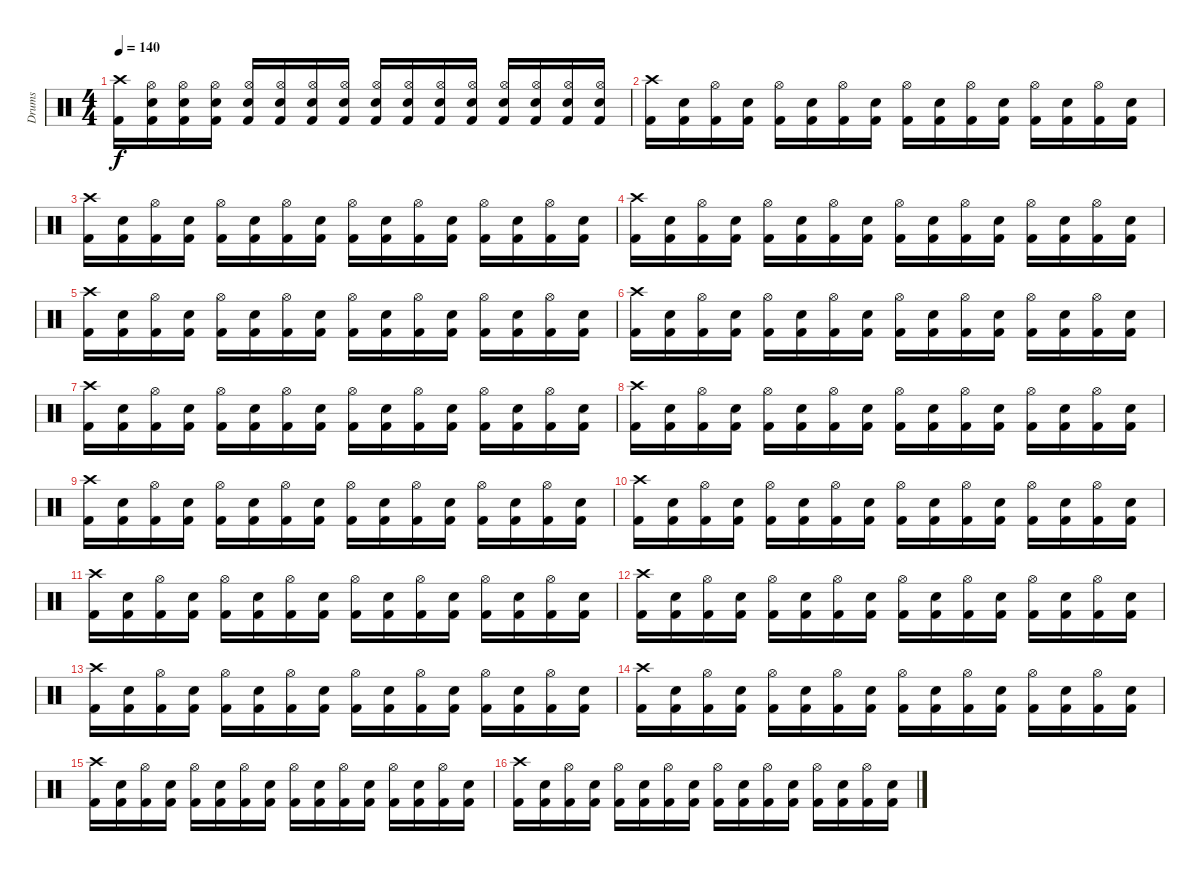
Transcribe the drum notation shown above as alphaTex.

\track ("Drums" "Drums") {instrument percussion}
\staff {score}
\articulation defaults
\ts (4 4)
\tempo 140
\clef neutral
\ks c
("Crash high (hit)" "Kick (hit) 2").16{dy f} ("Hi-Hat (open)" "Electric Snare (hit)" "Kick (hit) 2").16 ("Hi-Hat (open)" "Electric Snare (hit)" "Kick (hit) 2").16 ("Hi-Hat (open)" "Electric Snare (hit)" "Kick (hit) 2").16 ("Hi-Hat (open)" "Electric Snare (hit)" "Kick (hit) 2").16 ("Hi-Hat (open)" "Electric Snare (hit)" "Kick (hit) 2").16 ("Hi-Hat (open)" "Electric Snare (hit)" "Kick (hit) 2").16 ("Hi-Hat (open)" "Electric Snare (hit)" "Kick (hit) 2").16 ("Hi-Hat (open)" "Electric Snare (hit)" "Kick (hit) 2").16 ("Hi-Hat (open)" "Electric Snare (hit)" "Kick (hit) 2").16 ("Hi-Hat (open)" "Electric Snare (hit)" "Kick (hit) 2").16 ("Hi-Hat (open)" "Electric Snare (hit)" "Kick (hit) 2").16 ("Hi-Hat (open)" "Electric Snare (hit)" "Kick (hit) 2").16 ("Hi-Hat (open)" "Electric Snare (hit)" "Kick (hit) 2").16 ("Hi-Hat (open)" "Electric Snare (hit)" "Kick (hit) 2").16 ("Hi-Hat (open)" "Electric Snare (hit)" "Kick (hit) 2").16 |
("Crash high (hit)" "Kick (hit) 2").16 ("Electric Snare (hit)" "Kick (hit) 2").16 ("Hi-Hat (open)" "Kick (hit) 2").16 ("Electric Snare (hit)" "Kick (hit) 2").16 ("Hi-Hat (open)" "Kick (hit) 2").16 ("Electric Snare (hit)" "Kick (hit) 2").16 ("Hi-Hat (open)" "Kick (hit) 2").16 ("Electric Snare (hit)" "Kick (hit) 2").16 ("Hi-Hat (open)" "Kick (hit) 2").16 ("Electric Snare (hit)" "Kick (hit) 2").16 ("Hi-Hat (open)" "Kick (hit) 2").16 ("Electric Snare (hit)" "Kick (hit) 2").16 ("Hi-Hat (open)" "Kick (hit) 2").16 ("Electric Snare (hit)" "Kick (hit) 2").16 ("Hi-Hat (open)" "Kick (hit) 2").16 ("Electric Snare (hit)" "Kick (hit) 2").16 |
("Crash high (hit)" "Kick (hit) 2").16 ("Electric Snare (hit)" "Kick (hit) 2").16 ("Hi-Hat (open)" "Kick (hit) 2").16 ("Electric Snare (hit)" "Kick (hit) 2").16 ("Hi-Hat (open)" "Kick (hit) 2").16 ("Electric Snare (hit)" "Kick (hit) 2").16 ("Hi-Hat (open)" "Kick (hit) 2").16 ("Electric Snare (hit)" "Kick (hit) 2").16 ("Hi-Hat (open)" "Kick (hit) 2").16 ("Electric Snare (hit)" "Kick (hit) 2").16 ("Hi-Hat (open)" "Kick (hit) 2").16 ("Electric Snare (hit)" "Kick (hit) 2").16 ("Hi-Hat (open)" "Kick (hit) 2").16 ("Electric Snare (hit)" "Kick (hit) 2").16 ("Hi-Hat (open)" "Kick (hit) 2").16 ("Electric Snare (hit)" "Kick (hit) 2").16 |
("Crash high (hit)" "Kick (hit) 2").16 ("Electric Snare (hit)" "Kick (hit) 2").16 ("Hi-Hat (open)" "Kick (hit) 2").16 ("Electric Snare (hit)" "Kick (hit) 2").16 ("Hi-Hat (open)" "Kick (hit) 2").16 ("Electric Snare (hit)" "Kick (hit) 2").16 ("Hi-Hat (open)" "Kick (hit) 2").16 ("Electric Snare (hit)" "Kick (hit) 2").16 ("Hi-Hat (open)" "Kick (hit) 2").16 ("Electric Snare (hit)" "Kick (hit) 2").16 ("Hi-Hat (open)" "Kick (hit) 2").16 ("Electric Snare (hit)" "Kick (hit) 2").16 ("Hi-Hat (open)" "Kick (hit) 2").16 ("Electric Snare (hit)" "Kick (hit) 2").16 ("Hi-Hat (open)" "Kick (hit) 2").16 ("Electric Snare (hit)" "Kick (hit) 2").16 |
("Crash high (hit)" "Kick (hit) 2").16 ("Electric Snare (hit)" "Kick (hit) 2").16 ("Hi-Hat (open)" "Kick (hit) 2").16 ("Electric Snare (hit)" "Kick (hit) 2").16 ("Hi-Hat (open)" "Kick (hit) 2").16 ("Electric Snare (hit)" "Kick (hit) 2").16 ("Hi-Hat (open)" "Kick (hit) 2").16 ("Electric Snare (hit)" "Kick (hit) 2").16 ("Hi-Hat (open)" "Kick (hit) 2").16 ("Electric Snare (hit)" "Kick (hit) 2").16 ("Hi-Hat (open)" "Kick (hit) 2").16 ("Electric Snare (hit)" "Kick (hit) 2").16 ("Hi-Hat (open)" "Kick (hit) 2").16 ("Electric Snare (hit)" "Kick (hit) 2").16 ("Hi-Hat (open)" "Kick (hit) 2").16 ("Electric Snare (hit)" "Kick (hit) 2").16 |
("Crash high (hit)" "Kick (hit) 2").16 ("Electric Snare (hit)" "Kick (hit) 2").16 ("Hi-Hat (open)" "Kick (hit) 2").16 ("Electric Snare (hit)" "Kick (hit) 2").16 ("Hi-Hat (open)" "Kick (hit) 2").16 ("Electric Snare (hit)" "Kick (hit) 2").16 ("Hi-Hat (open)" "Kick (hit) 2").16 ("Electric Snare (hit)" "Kick (hit) 2").16 ("Hi-Hat (open)" "Kick (hit) 2").16 ("Electric Snare (hit)" "Kick (hit) 2").16 ("Hi-Hat (open)" "Kick (hit) 2").16 ("Electric Snare (hit)" "Kick (hit) 2").16 ("Hi-Hat (open)" "Kick (hit) 2").16 ("Electric Snare (hit)" "Kick (hit) 2").16 ("Hi-Hat (open)" "Kick (hit) 2").16 ("Electric Snare (hit)" "Kick (hit) 2").16 |
("Crash high (hit)" "Kick (hit) 2").16 ("Electric Snare (hit)" "Kick (hit) 2").16 ("Hi-Hat (open)" "Kick (hit) 2").16 ("Electric Snare (hit)" "Kick (hit) 2").16 ("Hi-Hat (open)" "Kick (hit) 2").16 ("Electric Snare (hit)" "Kick (hit) 2").16 ("Hi-Hat (open)" "Kick (hit) 2").16 ("Electric Snare (hit)" "Kick (hit) 2").16 ("Hi-Hat (open)" "Kick (hit) 2").16 ("Electric Snare (hit)" "Kick (hit) 2").16 ("Hi-Hat (open)" "Kick (hit) 2").16 ("Electric Snare (hit)" "Kick (hit) 2").16 ("Hi-Hat (open)" "Kick (hit) 2").16 ("Electric Snare (hit)" "Kick (hit) 2").16 ("Hi-Hat (open)" "Kick (hit) 2").16 ("Electric Snare (hit)" "Kick (hit) 2").16 |
("Crash high (hit)" "Kick (hit) 2").16 ("Electric Snare (hit)" "Kick (hit) 2").16 ("Hi-Hat (open)" "Kick (hit) 2").16 ("Electric Snare (hit)" "Kick (hit) 2").16 ("Hi-Hat (open)" "Kick (hit) 2").16 ("Electric Snare (hit)" "Kick (hit) 2").16 ("Hi-Hat (open)" "Kick (hit) 2").16 ("Electric Snare (hit)" "Kick (hit) 2").16 ("Hi-Hat (open)" "Kick (hit) 2").16 ("Electric Snare (hit)" "Kick (hit) 2").16 ("Hi-Hat (open)" "Kick (hit) 2").16 ("Electric Snare (hit)" "Kick (hit) 2").16 ("Hi-Hat (open)" "Kick (hit) 2").16 ("Electric Snare (hit)" "Kick (hit) 2").16 ("Hi-Hat (open)" "Kick (hit) 2").16 ("Electric Snare (hit)" "Kick (hit) 2").16 |
("Crash high (hit)" "Kick (hit) 2").16 ("Electric Snare (hit)" "Kick (hit) 2").16 ("Hi-Hat (open)" "Kick (hit) 2").16 ("Electric Snare (hit)" "Kick (hit) 2").16 ("Hi-Hat (open)" "Kick (hit) 2").16 ("Electric Snare (hit)" "Kick (hit) 2").16 ("Hi-Hat (open)" "Kick (hit) 2").16 ("Electric Snare (hit)" "Kick (hit) 2").16 ("Hi-Hat (open)" "Kick (hit) 2").16 ("Electric Snare (hit)" "Kick (hit) 2").16 ("Hi-Hat (open)" "Kick (hit) 2").16 ("Electric Snare (hit)" "Kick (hit) 2").16 ("Hi-Hat (open)" "Kick (hit) 2").16 ("Electric Snare (hit)" "Kick (hit) 2").16 ("Hi-Hat (open)" "Kick (hit) 2").16 ("Electric Snare (hit)" "Kick (hit) 2").16 |
("Crash high (hit)" "Kick (hit) 2").16 ("Electric Snare (hit)" "Kick (hit) 2").16 ("Hi-Hat (open)" "Kick (hit) 2").16 ("Electric Snare (hit)" "Kick (hit) 2").16 ("Hi-Hat (open)" "Kick (hit) 2").16 ("Electric Snare (hit)" "Kick (hit) 2").16 ("Hi-Hat (open)" "Kick (hit) 2").16 ("Electric Snare (hit)" "Kick (hit) 2").16 ("Hi-Hat (open)" "Kick (hit) 2").16 ("Electric Snare (hit)" "Kick (hit) 2").16 ("Hi-Hat (open)" "Kick (hit) 2").16 ("Electric Snare (hit)" "Kick (hit) 2").16 ("Hi-Hat (open)" "Kick (hit) 2").16 ("Electric Snare (hit)" "Kick (hit) 2").16 ("Hi-Hat (open)" "Kick (hit) 2").16 ("Electric Snare (hit)" "Kick (hit) 2").16 |
("Crash high (hit)" "Kick (hit) 2").16 ("Electric Snare (hit)" "Kick (hit) 2").16 ("Hi-Hat (open)" "Kick (hit) 2").16 ("Electric Snare (hit)" "Kick (hit) 2").16 ("Hi-Hat (open)" "Kick (hit) 2").16 ("Electric Snare (hit)" "Kick (hit) 2").16 ("Hi-Hat (open)" "Kick (hit) 2").16 ("Electric Snare (hit)" "Kick (hit) 2").16 ("Hi-Hat (open)" "Kick (hit) 2").16 ("Electric Snare (hit)" "Kick (hit) 2").16 ("Hi-Hat (open)" "Kick (hit) 2").16 ("Electric Snare (hit)" "Kick (hit) 2").16 ("Hi-Hat (open)" "Kick (hit) 2").16 ("Electric Snare (hit)" "Kick (hit) 2").16 ("Hi-Hat (open)" "Kick (hit) 2").16 ("Electric Snare (hit)" "Kick (hit) 2").16 |
("Crash high (hit)" "Kick (hit) 2").16 ("Electric Snare (hit)" "Kick (hit) 2").16 ("Hi-Hat (open)" "Kick (hit) 2").16 ("Electric Snare (hit)" "Kick (hit) 2").16 ("Hi-Hat (open)" "Kick (hit) 2").16 ("Electric Snare (hit)" "Kick (hit) 2").16 ("Hi-Hat (open)" "Kick (hit) 2").16 ("Electric Snare (hit)" "Kick (hit) 2").16 ("Hi-Hat (open)" "Kick (hit) 2").16 ("Electric Snare (hit)" "Kick (hit) 2").16 ("Hi-Hat (open)" "Kick (hit) 2").16 ("Electric Snare (hit)" "Kick (hit) 2").16 ("Hi-Hat (open)" "Kick (hit) 2").16 ("Electric Snare (hit)" "Kick (hit) 2").16 ("Hi-Hat (open)" "Kick (hit) 2").16 ("Electric Snare (hit)" "Kick (hit) 2").16 |
("Crash high (hit)" "Kick (hit) 2").16 ("Electric Snare (hit)" "Kick (hit) 2").16 ("Hi-Hat (open)" "Kick (hit) 2").16 ("Electric Snare (hit)" "Kick (hit) 2").16 ("Hi-Hat (open)" "Kick (hit) 2").16 ("Electric Snare (hit)" "Kick (hit) 2").16 ("Hi-Hat (open)" "Kick (hit) 2").16 ("Electric Snare (hit)" "Kick (hit) 2").16 ("Hi-Hat (open)" "Kick (hit) 2").16 ("Electric Snare (hit)" "Kick (hit) 2").16 ("Hi-Hat (open)" "Kick (hit) 2").16 ("Electric Snare (hit)" "Kick (hit) 2").16 ("Hi-Hat (open)" "Kick (hit) 2").16 ("Electric Snare (hit)" "Kick (hit) 2").16 ("Hi-Hat (open)" "Kick (hit) 2").16 ("Electric Snare (hit)" "Kick (hit) 2").16 |
("Crash high (hit)" "Kick (hit) 2").16 ("Electric Snare (hit)" "Kick (hit) 2").16 ("Hi-Hat (open)" "Kick (hit) 2").16 ("Electric Snare (hit)" "Kick (hit) 2").16 ("Hi-Hat (open)" "Kick (hit) 2").16 ("Electric Snare (hit)" "Kick (hit) 2").16 ("Hi-Hat (open)" "Kick (hit) 2").16 ("Electric Snare (hit)" "Kick (hit) 2").16 ("Hi-Hat (open)" "Kick (hit) 2").16 ("Electric Snare (hit)" "Kick (hit) 2").16 ("Hi-Hat (open)" "Kick (hit) 2").16 ("Electric Snare (hit)" "Kick (hit) 2").16 ("Hi-Hat (open)" "Kick (hit) 2").16 ("Electric Snare (hit)" "Kick (hit) 2").16 ("Hi-Hat (open)" "Kick (hit) 2").16 ("Electric Snare (hit)" "Kick (hit) 2").16 |
("Crash high (hit)" "Kick (hit) 2").16 ("Electric Snare (hit)" "Kick (hit) 2").16 ("Hi-Hat (open)" "Kick (hit) 2").16 ("Electric Snare (hit)" "Kick (hit) 2").16 ("Hi-Hat (open)" "Kick (hit) 2").16 ("Electric Snare (hit)" "Kick (hit) 2").16 ("Hi-Hat (open)" "Kick (hit) 2").16 ("Electric Snare (hit)" "Kick (hit) 2").16 ("Hi-Hat (open)" "Kick (hit) 2").16 ("Electric Snare (hit)" "Kick (hit) 2").16 ("Hi-Hat (open)" "Kick (hit) 2").16 ("Electric Snare (hit)" "Kick (hit) 2").16 ("Hi-Hat (open)" "Kick (hit) 2").16 ("Electric Snare (hit)" "Kick (hit) 2").16 ("Hi-Hat (open)" "Kick (hit) 2").16 ("Electric Snare (hit)" "Kick (hit) 2").16 |
("Crash high (hit)" "Kick (hit) 2").16 ("Electric Snare (hit)" "Kick (hit) 2").16 ("Hi-Hat (open)" "Kick (hit) 2").16 ("Electric Snare (hit)" "Kick (hit) 2").16 ("Hi-Hat (open)" "Kick (hit) 2").16 ("Electric Snare (hit)" "Kick (hit) 2").16 ("Hi-Hat (open)" "Kick (hit) 2").16 ("Electric Snare (hit)" "Kick (hit) 2").16 ("Hi-Hat (open)" "Kick (hit) 2").16 ("Electric Snare (hit)" "Kick (hit) 2").16 ("Hi-Hat (open)" "Kick (hit) 2").16 ("Electric Snare (hit)" "Kick (hit) 2").16 ("Hi-Hat (open)" "Kick (hit) 2").16 ("Electric Snare (hit)" "Kick (hit) 2").16 ("Hi-Hat (open)" "Kick (hit) 2").16 ("Electric Snare (hit)" "Kick (hit) 2").16
